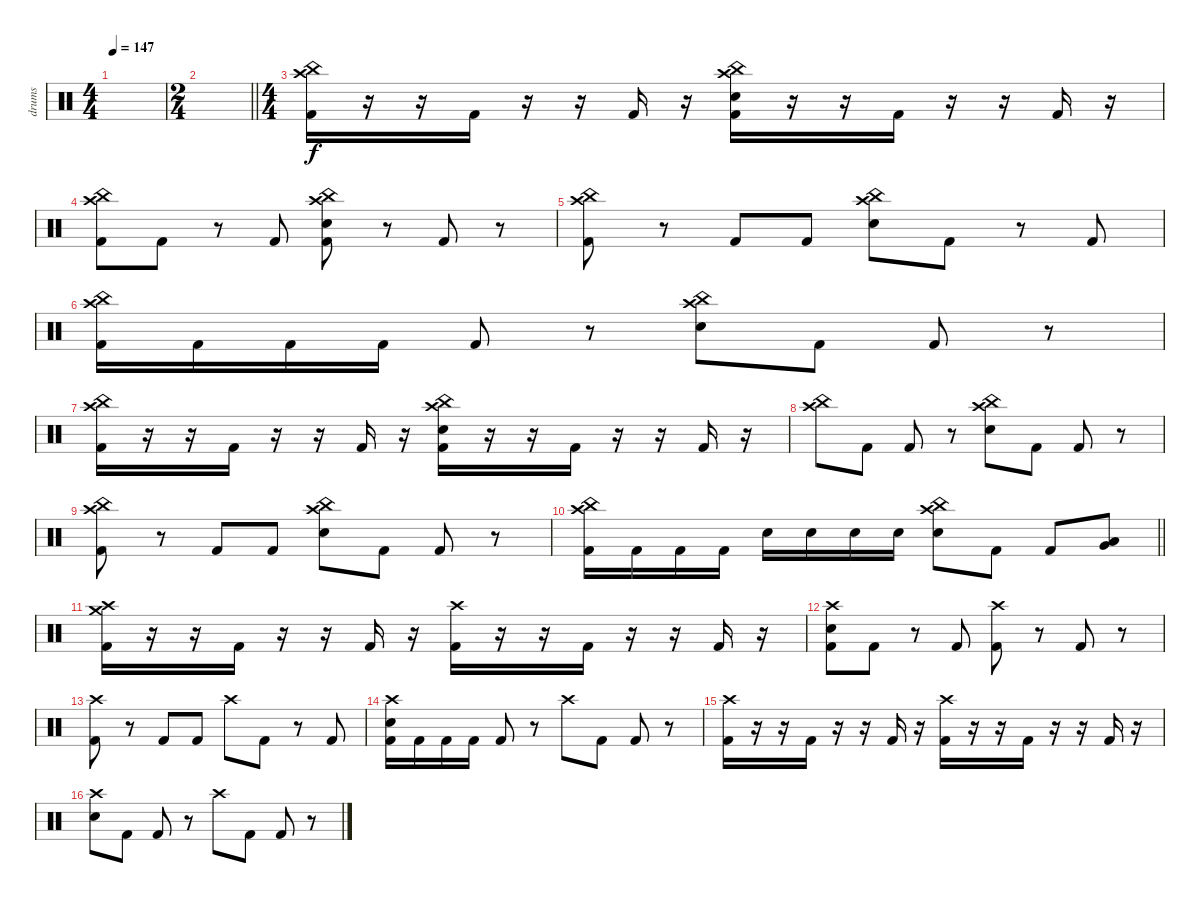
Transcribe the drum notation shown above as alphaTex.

\track ("drums" "drums") {instrument percussion}
\staff {score}
\articulation defaults
\ts (4 4)
\tempo 147
\clef neutral
\ks c
|
\ts (2 4)
\barLineRight lightlight
|
\ts (4 4)
\section ("" "")
("China (hit)" "Crash high (hit)" "Kick (hit) 2").16 r.16 r.16 "Kick (hit) 2".16 r.16 r.16 "Kick (hit) 2".16 r.16 ("China (hit)" "Crash high (hit)" "Electric Snare (hit)" "Kick (hit) 2").16 r.16 r.16 "Kick (hit) 2".16 r.16 r.16 "Kick (hit) 2".16 r.16 |
("China (hit)" "Crash high (hit)" "Kick (hit) 2").8 "Kick (hit) 2".8 r.8 "Kick (hit) 2".8 ("China (hit)" "Crash high (hit)" "Electric Snare (hit)" "Kick (hit) 2").8 r.8 "Kick (hit) 2".8 r.8 |
("China (hit)" "Crash high (hit)" "Kick (hit) 2").8 r.8 "Kick (hit) 2".8 "Kick (hit) 2".8 ("China (hit)" "Crash high (hit)" "Electric Snare (hit)").8 "Kick (hit) 2".8 r.8 "Kick (hit) 2".8 |
("China (hit)" "Crash high (hit)" "Kick (hit) 2").16 "Kick (hit) 2".16 "Kick (hit) 2".16 "Kick (hit) 2".16 "Kick (hit) 2".8 r.8 ("China (hit)" "Crash high (hit)" "Electric Snare (hit)").8 "Kick (hit) 2".8 "Kick (hit) 2".8 r.8 |
("China (hit)" "Crash high (hit)" "Kick (hit) 2").16 r.16 r.16 "Kick (hit) 2".16 r.16 r.16 "Kick (hit) 2".16 r.16 ("China (hit)" "Crash high (hit)" "Electric Snare (hit)" "Kick (hit) 2").16 r.16 r.16 "Kick (hit) 2".16 r.16 r.16 "Kick (hit) 2".16 r.16 |
("China (hit)" "Crash high (hit)").8 "Kick (hit) 2".8 "Kick (hit) 2".8 r.8 ("China (hit)" "Crash high (hit)" "Electric Snare (hit)").8 "Kick (hit) 2".8 "Kick (hit) 2".8 r.8 |
("China (hit)" "Crash high (hit)" "Kick (hit) 2").8 r.8 "Kick (hit) 2".8 "Kick (hit) 2".8 ("China (hit)" "Crash high (hit)" "Electric Snare (hit)").8 "Kick (hit) 2".8 "Kick (hit) 2".8 r.8 |
\barLineRight lightlight
("China (hit)" "Crash high (hit)" "Kick (hit) 2").16 "Kick (hit) 2".16 "Kick (hit) 2".16 "Kick (hit) 2".16 "Electric Snare (hit)".16 "Electric Snare (hit)".16 "Electric Snare (hit)".16 "Electric Snare (hit)".16 ("China (hit)" "Crash high (hit)" "Electric Snare (hit)").8 "Kick (hit) 2".8 "Kick (hit) 2".8 ("Very Low Tom (hit)" "Low Floor Tom (hit)").8 |
\section ("" "")
("Crash medium (hit)" "Crash high (hit)" "Kick (hit) 2").16 r.16 r.16 "Kick (hit) 2".16 r.16 r.16 "Kick (hit) 2".16 r.16 ("Crash high (hit)" "Kick (hit) 2").16 r.16 r.16 "Kick (hit) 2".16 r.16 r.16 "Kick (hit) 2".16 r.16 |
("Crash high (hit)" "Electric Snare (hit)" "Kick (hit) 2").8 "Kick (hit) 2".8 r.8 "Kick (hit) 2".8 ("Crash high (hit)" "Kick (hit) 2").8 r.8 "Kick (hit) 2".8 r.8 |
("Crash high (hit)" "Kick (hit) 2").8 r.8 "Kick (hit) 2".8 "Kick (hit) 2".8 "Crash high (hit)".8 "Kick (hit) 2".8 r.8 "Kick (hit) 2".8 |
("Crash high (hit)" "Electric Snare (hit)" "Kick (hit) 2").16 "Kick (hit) 2".16 "Kick (hit) 2".16 "Kick (hit) 2".16 "Kick (hit) 2".8 r.8 "Crash high (hit)".8 "Kick (hit) 2".8 "Kick (hit) 2".8 r.8 |
("Crash high (hit)" "Kick (hit) 2").16 r.16 r.16 "Kick (hit) 2".16 r.16 r.16 "Kick (hit) 2".16 r.16 ("Crash high (hit)" "Kick (hit) 2").16 r.16 r.16 "Kick (hit) 2".16 r.16 r.16 "Kick (hit) 2".16 r.16 |
("Crash high (hit)" "Electric Snare (hit)").8 "Kick (hit) 2".8 "Kick (hit) 2".8 r.8 "Crash high (hit)".8 "Kick (hit) 2".8 "Kick (hit) 2".8 r.8
